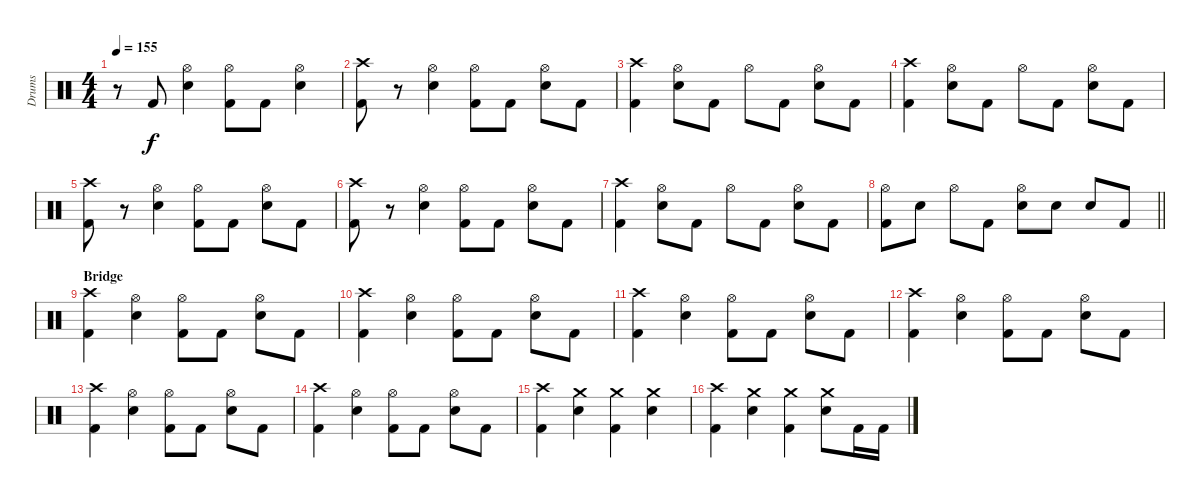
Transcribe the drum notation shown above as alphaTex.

\track ("Drums" "Drums") {instrument percussion}
\staff {score}
\articulation defaults
\ts (4 4)
\tempo 155
\clef neutral
\ks c
r.8{dy f} "Kick (hit) 2".8 ("Hi-Hat (open)" "Electric Snare (hit)").4 ("Hi-Hat (open)" "Kick (hit) 2").8 "Kick (hit) 2".8 ("Hi-Hat (open)" "Electric Snare (hit)").4 |
("Crash high (hit)" "Kick (hit) 2").8 r.8 ("Hi-Hat (open)" "Electric Snare (hit)").4 ("Hi-Hat (open)" "Kick (hit) 2").8 "Kick (hit) 2".8 ("Hi-Hat (open)" "Electric Snare (hit)").8 "Kick (hit) 2".8 |
("Crash high (hit)" "Kick (hit) 2").4 ("Hi-Hat (open)" "Electric Snare (hit)").8 "Kick (hit) 2".8 "Hi-Hat (open)".8 "Kick (hit) 2".8 ("Hi-Hat (open)" "Electric Snare (hit)").8 "Kick (hit) 2".8 |
("Crash high (hit)" "Kick (hit) 2").4 ("Hi-Hat (open)" "Electric Snare (hit)").8 "Kick (hit) 2".8 "Hi-Hat (open)".8 "Kick (hit) 2".8 ("Hi-Hat (open)" "Electric Snare (hit)").8 "Kick (hit) 2".8 |
("Crash high (hit)" "Kick (hit) 2").8 r.8 ("Hi-Hat (open)" "Electric Snare (hit)").4 ("Hi-Hat (open)" "Kick (hit) 2").8 "Kick (hit) 2".8 ("Hi-Hat (open)" "Electric Snare (hit)").8 "Kick (hit) 2".8 |
("Crash high (hit)" "Kick (hit) 2").8 r.8 ("Hi-Hat (open)" "Electric Snare (hit)").4 ("Hi-Hat (open)" "Kick (hit) 2").8 "Kick (hit) 2".8 ("Hi-Hat (open)" "Electric Snare (hit)").8 "Kick (hit) 2".8 |
("Crash high (hit)" "Kick (hit) 2").4 ("Hi-Hat (open)" "Electric Snare (hit)").8 "Kick (hit) 2".8 "Hi-Hat (open)".8 "Kick (hit) 2".8 ("Hi-Hat (open)" "Electric Snare (hit)").8 "Kick (hit) 2".8 |
\barLineRight lightlight
("Hi-Hat (open)" "Kick (hit) 2").8 "Electric Snare (hit)".8 "Hi-Hat (open)".8 "Kick (hit) 2".8 ("Hi-Hat (open)" "Electric Snare (hit)").8 "Electric Snare (hit)".8 "Electric Snare (hit)".8 "Kick (hit) 2".8 |
\section ("" "Bridge")
("Crash high (hit)" "Kick (hit) 2").4 ("Hi-Hat (open)" "Electric Snare (hit)").4 ("Hi-Hat (open)" "Kick (hit) 2").8 "Kick (hit) 2".8 ("Hi-Hat (open)" "Electric Snare (hit)").8 "Kick (hit) 2".8 |
("Crash high (hit)" "Kick (hit) 2").4 ("Hi-Hat (open)" "Electric Snare (hit)").4 ("Hi-Hat (open)" "Kick (hit) 2").8 "Kick (hit) 2".8 ("Hi-Hat (open)" "Electric Snare (hit)").8 "Kick (hit) 2".8 |
("Crash high (hit)" "Kick (hit) 2").4 ("Hi-Hat (open)" "Electric Snare (hit)").4 ("Hi-Hat (open)" "Kick (hit) 2").8 "Kick (hit) 2".8 ("Hi-Hat (open)" "Electric Snare (hit)").8 "Kick (hit) 2".8 |
("Crash high (hit)" "Kick (hit) 2").4 ("Hi-Hat (open)" "Electric Snare (hit)").4 ("Hi-Hat (open)" "Kick (hit) 2").8 "Kick (hit) 2".8 ("Hi-Hat (open)" "Electric Snare (hit)").8 "Kick (hit) 2".8 |
("Crash high (hit)" "Kick (hit) 2").4 ("Hi-Hat (open)" "Electric Snare (hit)").4 ("Hi-Hat (open)" "Kick (hit) 2").8 "Kick (hit) 2".8 ("Hi-Hat (open)" "Electric Snare (hit)").8 "Kick (hit) 2".8 |
("Crash high (hit)" "Kick (hit) 2").4 ("Hi-Hat (open)" "Electric Snare (hit)").4 ("Hi-Hat (open)" "Kick (hit) 2").8 "Kick (hit) 2".8 ("Hi-Hat (open)" "Electric Snare (hit)").8 "Kick (hit) 2".8 |
("Crash high (hit)" "Kick (hit) 2").4 ("Crash medium (hit)" "Electric Snare (hit)").4 ("Crash medium (hit)" "Kick (hit) 2").4 ("Crash medium (hit)" "Electric Snare (hit)").4 |
("Crash high (hit)" "Kick (hit) 2").4 ("Crash medium (hit)" "Electric Snare (hit)").4 ("Crash medium (hit)" "Kick (hit) 2").4 ("Crash medium (hit)" "Electric Snare (hit)").8 "Kick (hit) 2".16 "Kick (hit) 2".16
